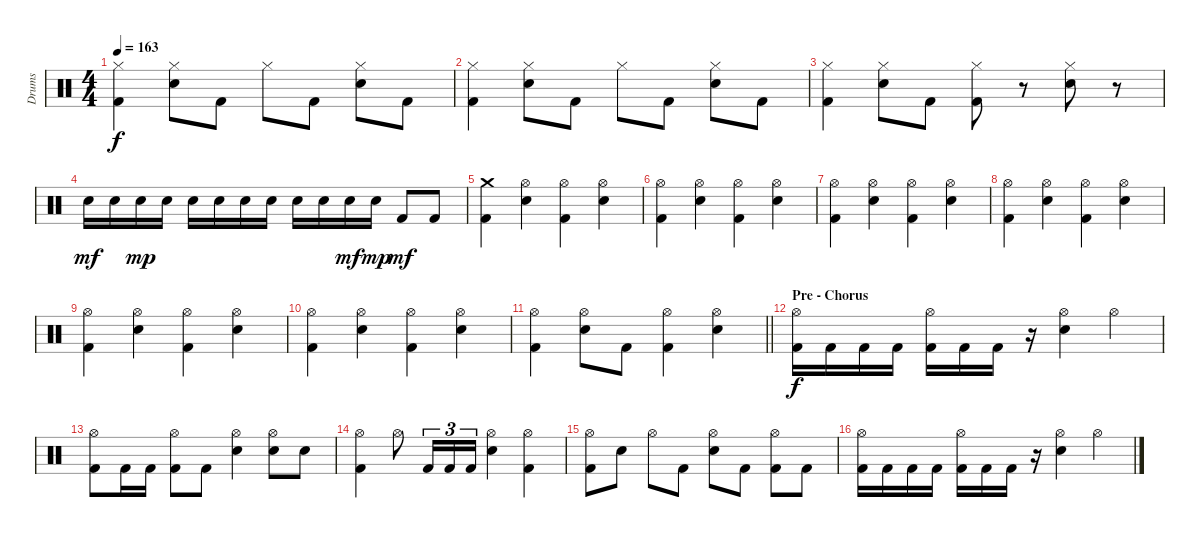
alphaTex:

\track ("Drums" "Drums") {instrument percussion}
\staff {score}
\articulation defaults
\ts (4 4)
\tempo 163
\clef neutral
\ks c
("Hi-Hat (closed)" "Kick (hit) 2").4{dy f} ("Hi-Hat (closed)" "Electric Snare (hit)").8 "Kick (hit) 2".8 "Hi-Hat (closed)".8 "Kick (hit) 2".8 ("Hi-Hat (closed)" "Electric Snare (hit)").8 "Kick (hit) 2".8 |
("Hi-Hat (closed)" "Kick (hit) 2").4 ("Hi-Hat (closed)" "Electric Snare (hit)").8 "Kick (hit) 2".8 "Hi-Hat (closed)".8 "Kick (hit) 2".8 ("Hi-Hat (closed)" "Electric Snare (hit)").8 "Kick (hit) 2".8 |
("Hi-Hat (closed)" "Kick (hit) 2").4 ("Hi-Hat (closed)" "Electric Snare (hit)").8 "Kick (hit) 2".8 ("Hi-Hat (closed)" "Kick (hit) 2").8 r.8 ("Hi-Hat (closed)" "Electric Snare (hit)").8 r.8 |
"Electric Snare (hit)".16{dy mf} "Electric Snare (hit)".16 "Electric Snare (hit)".16{dy mp} "Electric Snare (hit)".16 "Electric Snare (hit)".16 "Electric Snare (hit)".16 "Electric Snare (hit)".16 "Electric Snare (hit)".16 "Electric Snare (hit)".16 "Electric Snare (hit)".16 "Electric Snare (hit)".16{dy mf} "Electric Snare (hit)".16{dy mp} "Kick (hit) 2".8{dy mf} "Kick (hit) 2".8 |
("Crash medium (hit)" "Kick (hit) 2").4 ("Hi-Hat (open)" "Electric Snare (hit)").4 ("Hi-Hat (open)" "Kick (hit) 2").4 ("Hi-Hat (open)" "Electric Snare (hit)").4 |
("Hi-Hat (open)" "Kick (hit) 2").4 ("Hi-Hat (open)" "Electric Snare (hit)").4 ("Hi-Hat (open)" "Kick (hit) 2").4 ("Hi-Hat (open)" "Electric Snare (hit)").4 |
("Hi-Hat (open)" "Kick (hit) 2").4 ("Hi-Hat (open)" "Electric Snare (hit)").4 ("Hi-Hat (open)" "Kick (hit) 2").4 ("Hi-Hat (open)" "Electric Snare (hit)").4 |
("Hi-Hat (open)" "Kick (hit) 2").4 ("Hi-Hat (open)" "Electric Snare (hit)").4 ("Hi-Hat (open)" "Kick (hit) 2").4 ("Hi-Hat (open)" "Electric Snare (hit)").4 |
("Hi-Hat (open)" "Kick (hit) 2").4 ("Hi-Hat (open)" "Electric Snare (hit)").4 ("Hi-Hat (open)" "Kick (hit) 2").4 ("Hi-Hat (open)" "Electric Snare (hit)").4 |
("Hi-Hat (open)" "Kick (hit) 2").4 ("Hi-Hat (open)" "Electric Snare (hit)").4 ("Hi-Hat (open)" "Kick (hit) 2").4 ("Hi-Hat (open)" "Electric Snare (hit)").4 |
\barLineRight lightlight
("Hi-Hat (open)" "Kick (hit) 2").4 ("Hi-Hat (open)" "Electric Snare (hit)").8 "Kick (hit) 2".8 ("Hi-Hat (open)" "Kick (hit) 2").4 ("Hi-Hat (open)" "Electric Snare (hit)").4 |
\section ("" "Pre - Chorus")
("Hi-Hat (open)" "Kick (hit) 2").16{dy f} "Kick (hit) 2".16 "Kick (hit) 2".16 "Kick (hit) 2".16 ("Hi-Hat (open)" "Kick (hit) 2").16 "Kick (hit) 2".16 "Kick (hit) 2".16 r.16 ("Hi-Hat (open)" "Electric Snare (hit)").4 "Hi-Hat (open)".4 |
("Hi-Hat (open)" "Kick (hit) 2").8 "Kick (hit) 2".16 "Kick (hit) 2".16 ("Hi-Hat (open)" "Kick (hit) 2").8 "Kick (hit) 2".8 ("Hi-Hat (open)" "Electric Snare (hit)").4 ("Hi-Hat (open)" "Electric Snare (hit)").8 "Electric Snare (hit)".8 |
("Hi-Hat (open)" "Kick (hit) 2").4 "Hi-Hat (open)".8 "Kick (hit) 2".16{tu (3 2)} "Kick (hit) 2".16{tu (3 2)} "Kick (hit) 2".16{tu (3 2)} ("Hi-Hat (open)" "Electric Snare (hit)").4 ("Hi-Hat (open)" "Kick (hit) 2").4 |
("Hi-Hat (open)" "Kick (hit) 2").8 "Electric Snare (hit)".8 "Hi-Hat (open)".8 "Kick (hit) 2".8 ("Hi-Hat (open)" "Electric Snare (hit)").8 "Kick (hit) 2".8 ("Hi-Hat (open)" "Kick (hit) 2").8 "Kick (hit) 2".8 |
("Hi-Hat (open)" "Kick (hit) 2").16 "Kick (hit) 2".16 "Kick (hit) 2".16 "Kick (hit) 2".16 ("Hi-Hat (open)" "Kick (hit) 2").16 "Kick (hit) 2".16 "Kick (hit) 2".16 r.16 ("Hi-Hat (open)" "Electric Snare (hit)").4 "Hi-Hat (open)".4
